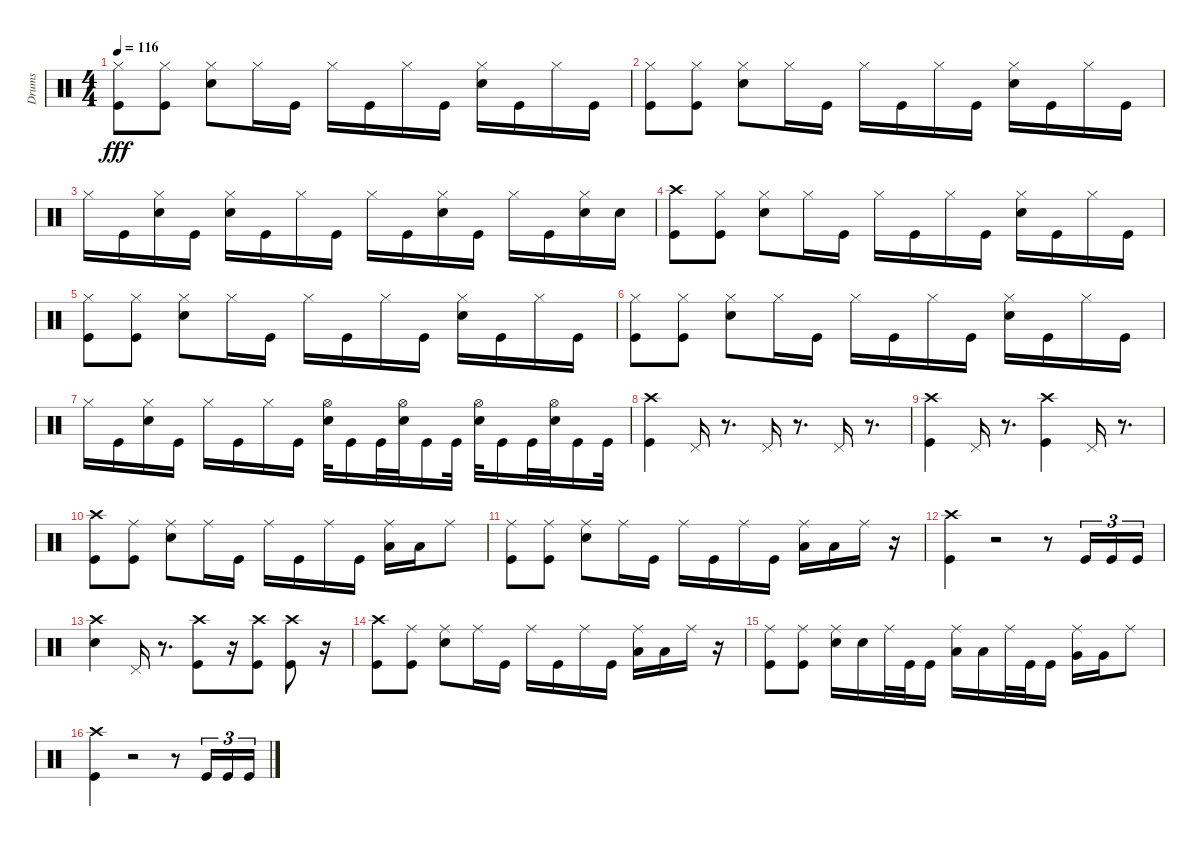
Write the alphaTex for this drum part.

\track ("Drums" "Drums") {instrument percussion}
\staff {score}
\articulation defaults
\ts (4 4)
\tempo 116
\clef neutral
\ks c
("Hi-Hat (closed)" "Kick (hit)").8{dy fff} ("Kick (hit)" "Hi-Hat (closed)").8 ("Snare (hit) 2" "Hi-Hat (closed)").8 "Hi-Hat (closed)".16 "Kick (hit)".16 "Hi-Hat (closed)".16 "Kick (hit)".16 "Hi-Hat (closed)".16 "Kick (hit)".16 ("Snare (hit) 2" "Hi-Hat (closed)").16 "Kick (hit)".16 "Hi-Hat (closed)".16 "Kick (hit)".16 |
("Hi-Hat (closed)" "Kick (hit)").8 ("Hi-Hat (closed)" "Kick (hit)").8 ("Hi-Hat (closed)" "Snare (hit) 2").8 "Hi-Hat (closed)".16 "Kick (hit)".16 "Hi-Hat (closed)".16 "Kick (hit)".16 "Hi-Hat (closed)".16 "Kick (hit)".16 ("Snare (hit) 2" "Hi-Hat (closed)").16 "Kick (hit)".16 "Hi-Hat (closed)".16 "Kick (hit)".16 |
"Hi-Hat (closed)".16 "Kick (hit)".16 ("Hi-Hat (closed)" "Snare (hit) 2").16 "Kick (hit)".16 ("Snare (hit) 2" "Hi-Hat (closed)").16 "Kick (hit)".16 "Hi-Hat (closed)".16 "Kick (hit)".16 "Hi-Hat (closed)".16 "Kick (hit)".16 ("Snare (hit) 2" "Hi-Hat (closed)").16 "Kick (hit)".16 "Hi-Hat (closed)".16 "Kick (hit)".16 ("Snare (hit) 2" "Hi-Hat (closed)").16 "Snare (hit) 2".16 |
("Crash high (hit)" "Kick (hit)").8 ("Hi-Hat (closed)" "Kick (hit)").8 ("Snare (hit) 2" "Hi-Hat (closed)").8 "Hi-Hat (closed)".16 "Kick (hit)".16 "Hi-Hat (closed)".16 "Kick (hit)".16 "Hi-Hat (closed)".16 "Kick (hit)".16 ("Snare (hit) 2" "Hi-Hat (closed)").16 "Kick (hit)".16 "Hi-Hat (closed)".16 "Kick (hit)".16 |
("Hi-Hat (closed)" "Kick (hit)").8 ("Hi-Hat (closed)" "Kick (hit)").8 ("Hi-Hat (closed)" "Snare (hit) 2").8 "Hi-Hat (closed)".16 "Kick (hit)".16 "Hi-Hat (closed)".16 "Kick (hit)".16 "Hi-Hat (closed)".16 "Kick (hit)".16 ("Snare (hit) 2" "Hi-Hat (closed)").16 "Kick (hit)".16 "Hi-Hat (closed)".16 "Kick (hit)".16 |
("Kick (hit)" "Hi-Hat (closed)").8 ("Kick (hit)" "Hi-Hat (closed)").8 ("Hi-Hat (closed)" "Snare (hit) 2").8 "Hi-Hat (closed)".16 "Kick (hit)".16 "Hi-Hat (closed)".16 "Kick (hit)".16 "Hi-Hat (closed)".16 "Kick (hit)".16 ("Hi-Hat (closed)" "Snare (hit) 2").16 "Kick (hit)".16 "Hi-Hat (closed)".16 "Kick (hit)".16 |
"Hi-Hat (closed)".16 "Kick (hit)".16 ("Snare (hit) 2" "Hi-Hat (closed)").16 "Kick (hit)".16 "Hi-Hat (closed)".16 "Kick (hit)".16 "Hi-Hat (closed)".16 "Kick (hit)".16 ("Snare (hit) 2" "Hi-Hat (open)").32 "Kick (hit)".16 "Kick (hit)".32 ("Snare (hit) 2" "Hi-Hat (open)").32 "Kick (hit)".16 "Kick (hit)".32 ("Hi-Hat (open)" "Snare (hit) 2").32 "Kick (hit)".16 "Kick (hit)".32 ("Snare (hit) 2" "Hi-Hat (open)").32 "Kick (hit)".16 "Kick (hit)".32 |
("Crash high (hit)" "Kick (hit)").4 "Pedal Hi-Hat (hit)".16 r.8{d} "Pedal Hi-Hat (hit)".16 r.8{d} "Pedal Hi-Hat (hit)".16 r.8{d} |
("Crash high (hit)" "Kick (hit)").4 "Pedal Hi-Hat (hit)".16 r.8{d} ("Crash high (hit)" "Kick (hit)").4 "Pedal Hi-Hat (hit)".16 r.8{d} |
("Crash high (hit)" "Kick (hit)").8 ("Ride (middle)" "Kick (hit)").8 ("Ride (middle)" "Snare (hit) 2").8 "Ride (middle)".16 "Kick (hit)".16 "Ride (middle)".16 "Kick (hit)".16 "Ride (middle)".16 "Kick (hit)".16 ("Ride (middle)" "Low Tom (hit)").16 "Low Tom (hit)".16 "Ride (middle)".8 |
("Ride (middle)" "Kick (hit)").8 ("Ride (middle)" "Kick (hit)").8 ("Ride (middle)" "Snare (hit) 2").8 "Ride (middle)".16 "Kick (hit)".16 "Ride (middle)".16 "Kick (hit)".16 "Ride (middle)".16 "Kick (hit)".16 ("Low Tom (hit)" "Ride (middle)").16 "Low Tom (hit)".16 "Ride (middle)".16 r.16 |
("Crash high (hit)" "Kick (hit)").4 r.2 r.8 "Kick (hit)".16{tu (3 2)} "Kick (hit)".16{tu (3 2)} "Kick (hit)".16{tu (3 2)} |
("Snare (hit) 2" "Crash high (hit)").4 "Pedal Hi-Hat (hit)".16 r.8{d} ("Kick (hit)" "Crash high (hit)").8 r.16 ("Crash high (hit)" "Kick (hit)").8 ("Kick (hit)" "Crash high (hit)").8 r.16 |
("Crash high (hit)" "Kick (hit)").8 ("Ride (middle)" "Kick (hit)").8 ("Ride (middle)" "Snare (hit) 2").8 "Ride (middle)".16 "Kick (hit)".16 "Ride (middle)".16 "Kick (hit)".16 "Ride (middle)".16 "Kick (hit)".16 ("Ride (middle)" "Low Tom (hit)").16 "Low Tom (hit)".16 "Ride (middle)".16 r.16 |
("Ride (middle)" "Kick (hit)").8 ("Ride (middle)" "Kick (hit)").8 ("Ride (middle)" "Snare (hit) 2").16 "Snare (hit) 2".16 "Ride (middle)".32 "Kick (hit)".32 "Kick (hit)".16 ("Ride (middle)" "Low Tom (hit)").16 "Low Tom (hit)".16 "Ride (middle)".32 "Kick (hit)".32 "Kick (hit)".16 ("Ride (middle)" "Very Low Tom (hit)").16 "Very Low Tom (hit)".16 "Ride (middle)".8 |
("Crash high (hit)" "Kick (hit)").4 r.2 r.8 "Kick (hit)".16{tu (3 2)} "Kick (hit)".16{tu (3 2)} "Kick (hit)".16{tu (3 2)}
